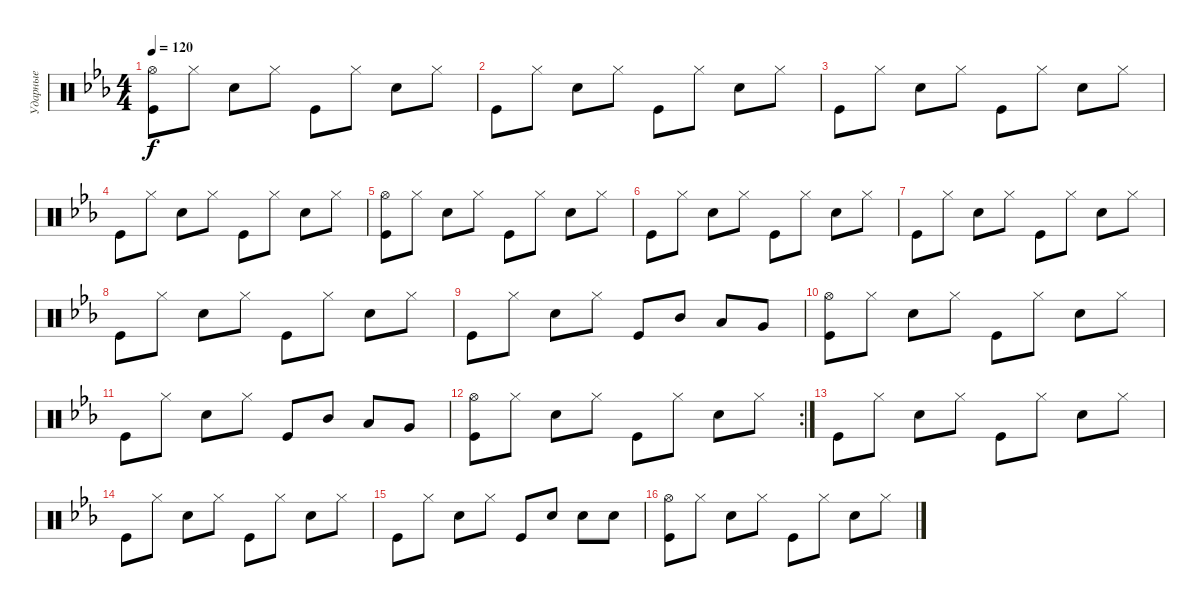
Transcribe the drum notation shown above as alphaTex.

\track ("Ударные" "Ударные") {instrument percussion}
\staff {score}
\articulation defaults
\ts (4 4)
\tempo 120
\clef neutral
\ks cminor
("Kick (hit)" "Hi-Hat (open)").8{dy f} "Hi-Hat (closed)".8 "Snare (hit) 2".8 "Hi-Hat (closed)".8 "Kick (hit)".8 "Hi-Hat (closed)".8 "Snare (hit) 2".8 "Hi-Hat (closed)".8 |
"Kick (hit)".8 "Hi-Hat (closed)".8 "Snare (hit) 2".8 "Hi-Hat (closed)".8 "Kick (hit)".8 "Hi-Hat (closed)".8 "Snare (hit) 2".8 "Hi-Hat (closed)".8 |
"Kick (hit)".8 "Hi-Hat (closed)".8 "Snare (hit) 2".8 "Hi-Hat (closed)".8 "Kick (hit)".8 "Hi-Hat (closed)".8 "Snare (hit) 2".8 "Hi-Hat (closed)".8 |
"Kick (hit)".8 "Hi-Hat (closed)".8 "Snare (hit) 2".8 "Hi-Hat (closed)".8 "Kick (hit)".8 "Hi-Hat (closed)".8 "Snare (hit) 2".8 "Hi-Hat (closed)".8 |
("Kick (hit)" "Hi-Hat (open)").8 "Hi-Hat (closed)".8 "Snare (hit) 2".8 "Hi-Hat (closed)".8 "Kick (hit)".8 "Hi-Hat (closed)".8 "Snare (hit) 2".8 "Hi-Hat (closed)".8 |
"Kick (hit)".8 "Hi-Hat (closed)".8 "Snare (hit) 2".8 "Hi-Hat (closed)".8 "Kick (hit)".8 "Hi-Hat (closed)".8 "Snare (hit) 2".8 "Hi-Hat (closed)".8 |
"Kick (hit)".8 "Hi-Hat (closed)".8 "Snare (hit) 2".8 "Hi-Hat (closed)".8 "Kick (hit)".8 "Hi-Hat (closed)".8 "Snare (hit) 2".8 "Hi-Hat (closed)".8 |
"Kick (hit)".8 "Hi-Hat (closed)".8 "Snare (hit) 2".8 "Hi-Hat (closed)".8 "Kick (hit)".8 "Hi-Hat (closed)".8 "Snare (hit) 2".8 "Hi-Hat (closed)".8 |
"Kick (hit)".8 "Hi-Hat (closed)".8 "Snare (hit) 2".8 "Hi-Hat (closed)".8 "Kick (hit)".8 "Mid Tom (hit)".8 "Low Tom (hit)".8 "Very Low Tom (hit)".8 |
("Kick (hit)" "Hi-Hat (open)").8 "Hi-Hat (closed)".8 "Snare (hit) 2".8 "Hi-Hat (closed)".8 "Kick (hit)".8 "Hi-Hat (closed)".8 "Snare (hit) 2".8 "Hi-Hat (closed)".8 |
"Kick (hit)".8 "Hi-Hat (closed)".8 "Snare (hit) 2".8 "Hi-Hat (closed)".8 "Kick (hit)".8 "Mid Tom (hit)".8 "Low Tom (hit)".8 "Very Low Tom (hit)".8 |
\rc 2
("Kick (hit)" "Hi-Hat (open)").8 "Hi-Hat (closed)".8 "Snare (hit) 2".8 "Hi-Hat (closed)".8 "Kick (hit)".8 "Hi-Hat (closed)".8 "Snare (hit) 2".8 "Hi-Hat (closed)".8 |
"Kick (hit)".8 "Hi-Hat (closed)".8 "Snare (hit) 2".8 "Hi-Hat (closed)".8 "Kick (hit)".8 "Hi-Hat (closed)".8 "Snare (hit) 2".8 "Hi-Hat (closed)".8 |
"Kick (hit)".8 "Hi-Hat (closed)".8 "Snare (hit) 2".8 "Hi-Hat (closed)".8 "Kick (hit)".8 "Hi-Hat (closed)".8 "Snare (hit) 2".8 "Hi-Hat (closed)".8 |
"Kick (hit)".8 "Hi-Hat (closed)".8 "Snare (hit) 2".8 "Hi-Hat (closed)".8 "Kick (hit)".8 "Snare (hit) 2".8 "Snare (hit) 2".8 "Snare (hit) 2".8 |
("Kick (hit)" "Hi-Hat (open)").8 "Hi-Hat (closed)".8 "Snare (hit) 2".8 "Hi-Hat (closed)".8 "Kick (hit)".8 "Hi-Hat (closed)".8 "Snare (hit) 2".8 "Hi-Hat (closed)".8
